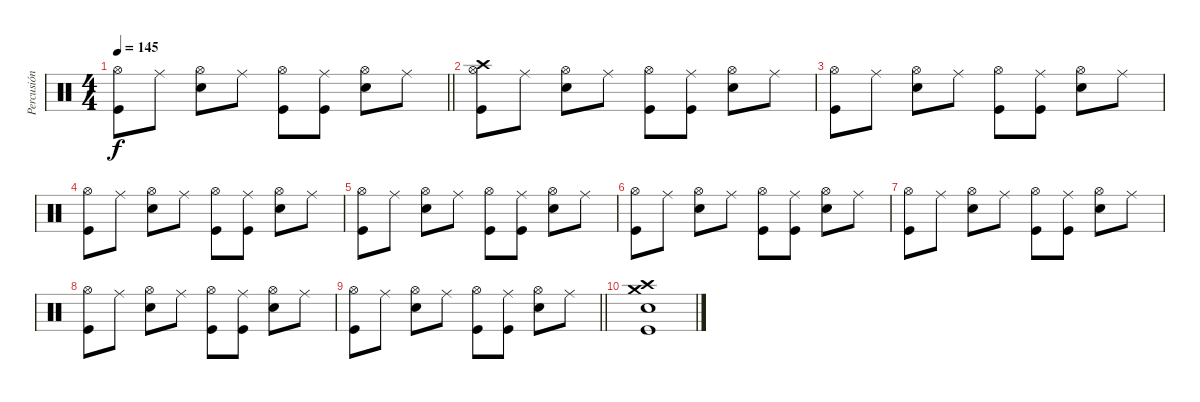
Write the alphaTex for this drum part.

\track ("Percusión" "Percusión") {instrument percussion}
\staff {score}
\articulation defaults
\ts (4 4)
\tempo 145
\clef neutral
\barLineRight lightlight
\ks c
("Hi-Hat (open)" "Kick (hit)").8{dy f} "Ride (middle)".8 ("Hi-Hat (open)" "Electric Snare (hit)").8 "Ride (middle)".8 ("Hi-Hat (open)" "Kick (hit)").8 ("Ride (middle)" "Kick (hit)").8 ("Hi-Hat (open)" "Electric Snare (hit)").8 "Ride (middle)".8 |
\section ("" "")
("Crash high (hit)" "Hi-Hat (open)" "Kick (hit)").8 "Ride (middle)".8 ("Hi-Hat (open)" "Electric Snare (hit)").8 "Ride (middle)".8 ("Hi-Hat (open)" "Kick (hit)").8 ("Ride (middle)" "Kick (hit)").8 ("Hi-Hat (open)" "Electric Snare (hit)").8 "Ride (middle)".8 |
("Hi-Hat (open)" "Kick (hit)").8 "Ride (middle)".8 ("Hi-Hat (open)" "Electric Snare (hit)").8 "Ride (middle)".8 ("Hi-Hat (open)" "Kick (hit)").8 ("Ride (middle)" "Kick (hit)").8 ("Hi-Hat (open)" "Electric Snare (hit)").8 "Ride (middle)".8 |
("Hi-Hat (open)" "Kick (hit)").8 "Ride (middle)".8 ("Hi-Hat (open)" "Electric Snare (hit)").8 "Ride (middle)".8 ("Hi-Hat (open)" "Kick (hit)").8 ("Ride (middle)" "Kick (hit)").8 ("Hi-Hat (open)" "Electric Snare (hit)").8 "Ride (middle)".8 |
("Hi-Hat (open)" "Kick (hit)").8 "Ride (middle)".8 ("Hi-Hat (open)" "Electric Snare (hit)").8 "Ride (middle)".8 ("Hi-Hat (open)" "Kick (hit)").8 ("Ride (middle)" "Kick (hit)").8 ("Hi-Hat (open)" "Electric Snare (hit)").8 "Ride (middle)".8 |
("Hi-Hat (open)" "Kick (hit)").8 "Ride (middle)".8 ("Hi-Hat (open)" "Electric Snare (hit)").8 "Ride (middle)".8 ("Hi-Hat (open)" "Kick (hit)").8 ("Ride (middle)" "Kick (hit)").8 ("Hi-Hat (open)" "Electric Snare (hit)").8 "Ride (middle)".8 |
("Hi-Hat (open)" "Kick (hit)").8 "Ride (middle)".8 ("Hi-Hat (open)" "Electric Snare (hit)").8 "Ride (middle)".8 ("Hi-Hat (open)" "Kick (hit)").8 ("Ride (middle)" "Kick (hit)").8 ("Hi-Hat (open)" "Electric Snare (hit)").8 "Ride (middle)".8 |
("Hi-Hat (open)" "Kick (hit)").8 "Ride (middle)".8 ("Hi-Hat (open)" "Electric Snare (hit)").8 "Ride (middle)".8 ("Hi-Hat (open)" "Kick (hit)").8 ("Ride (middle)" "Kick (hit)").8 ("Hi-Hat (open)" "Electric Snare (hit)").8 "Ride (middle)".8 |
\barLineRight lightlight
("Hi-Hat (open)" "Kick (hit)").8 "Ride (middle)".8 ("Hi-Hat (open)" "Electric Snare (hit)").8 "Ride (middle)".8 ("Hi-Hat (open)" "Kick (hit)").8 ("Ride (middle)" "Kick (hit)").8 ("Hi-Hat (open)" "Electric Snare (hit)").8 "Ride (middle)".8 |
("Crash medium (hit)" "Crash high (hit)" "Kick (hit)" "Electric Snare (hit)").1
